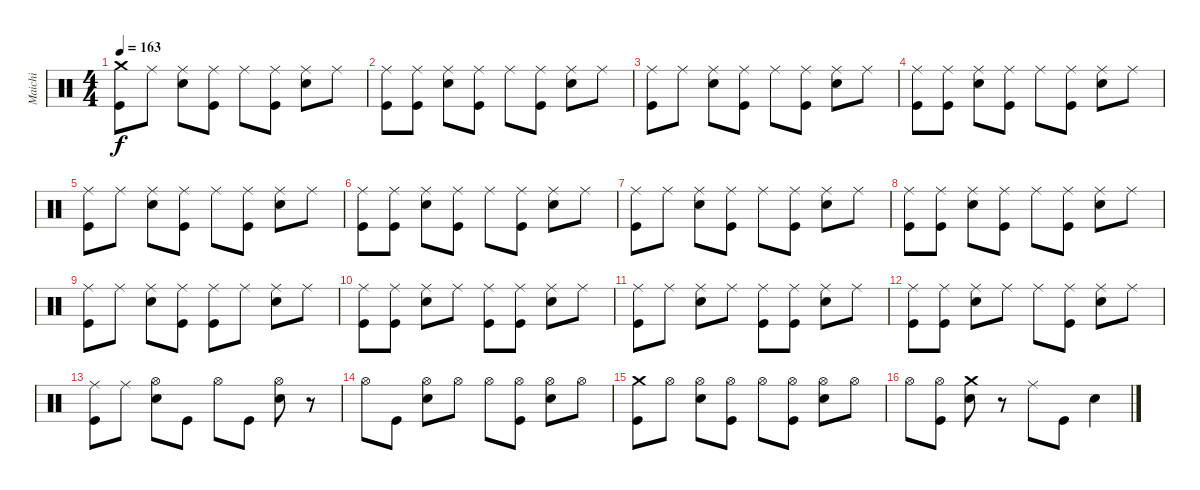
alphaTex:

\track ("Maichi" "Maichi") {instrument percussion}
\staff {score}
\articulation defaults
\ts (4 4)
\tempo 163
\clef neutral
\ks c
("Crash medium (hit)" "Kick (hit)").8{dy f} "Ride (middle)".8 ("Electric Snare (hit)" "Ride (middle)").8 ("Ride (middle)" "Kick (hit)").8 "Ride (middle)".8 ("Ride (middle)" "Kick (hit)").8 ("Electric Snare (hit)" "Ride (middle)").8 "Ride (middle)".8 |
("Kick (hit)" "Ride (middle)").8 ("Ride (middle)" "Kick (hit)").8 ("Ride (middle)" "Electric Snare (hit)").8 ("Kick (hit)" "Ride (middle)").8 "Ride (middle)".8 ("Kick (hit)" "Ride (middle)").8 ("Electric Snare (hit)" "Ride (middle)").8 "Ride (middle)".8 |
("Kick (hit)" "Ride (middle)").8 "Ride (middle)".8 ("Electric Snare (hit)" "Ride (middle)").8 ("Kick (hit)" "Ride (middle)").8 "Ride (middle)".8 ("Ride (middle)" "Kick (hit)").8 ("Ride (middle)" "Electric Snare (hit)").8 "Ride (middle)".8 |
("Ride (middle)" "Kick (hit)").8 ("Ride (middle)" "Kick (hit)").8 ("Ride (middle)" "Electric Snare (hit)").8 ("Kick (hit)" "Ride (middle)").8 "Ride (middle)".8 ("Ride (middle)" "Kick (hit)").8 ("Electric Snare (hit)" "Ride (middle)").8 "Ride (middle)".8 |
("Kick (hit)" "Ride (middle)").8 "Ride (middle)".8 ("Ride (middle)" "Electric Snare (hit)").8 ("Ride (middle)" "Kick (hit)").8 "Ride (middle)".8 ("Ride (middle)" "Kick (hit)").8 ("Ride (middle)" "Electric Snare (hit)").8 "Ride (middle)".8 |
("Ride (middle)" "Kick (hit)").8 ("Ride (middle)" "Kick (hit)").8 ("Electric Snare (hit)" "Ride (middle)").8 ("Kick (hit)" "Ride (middle)").8 "Ride (middle)".8 ("Kick (hit)" "Ride (middle)").8 ("Electric Snare (hit)" "Ride (middle)").8 "Ride (middle)".8 |
("Ride (middle)" "Kick (hit)").8 "Ride (middle)".8 ("Ride (middle)" "Electric Snare (hit)").8 ("Ride (middle)" "Kick (hit)").8 "Ride (middle)".8 ("Ride (middle)" "Kick (hit)").8 ("Ride (middle)" "Electric Snare (hit)").8 "Ride (middle)".8 |
("Kick (hit)" "Ride (middle)").8 ("Kick (hit)" "Ride (middle)").8 ("Ride (middle)" "Electric Snare (hit)").8 ("Ride (middle)" "Kick (hit)").8 "Ride (middle)".8 ("Kick (hit)" "Ride (middle)").8 ("Electric Snare (hit)" "Ride (middle)").8 "Ride (middle)".8 |
("Kick (hit)" "Ride (middle)").8 "Ride (middle)".8 ("Ride (middle)" "Electric Snare (hit)").8 ("Ride (middle)" "Kick (hit)").8 ("Kick (hit)" "Ride (middle)").8 "Ride (middle)".8 ("Electric Snare (hit)" "Ride (middle)").8 "Ride (middle)".8 |
("Ride (middle)" "Kick (hit)").8 ("Kick (hit)" "Ride (middle)").8 ("Electric Snare (hit)" "Ride (middle)").8 "Ride (middle)".8 ("Ride (middle)" "Kick (hit)").8 ("Kick (hit)" "Ride (middle)").8 ("Electric Snare (hit)" "Ride (middle)").8 "Ride (middle)".8 |
("Ride (middle)" "Kick (hit)").8 "Ride (middle)".8 ("Ride (middle)" "Electric Snare (hit)").8 "Ride (middle)".8 ("Kick (hit)" "Ride (middle)").8 ("Ride (middle)" "Kick (hit)").8 ("Ride (middle)" "Electric Snare (hit)").8 "Ride (middle)".8 |
("Kick (hit)" "Ride (middle)").8 ("Kick (hit)" "Ride (middle)").8 ("Ride (middle)" "Electric Snare (hit)").8 "Ride (middle)".8 "Ride (middle)".8 ("Ride (middle)" "Kick (hit)").8 ("Ride (middle)" "Electric Snare (hit)").8 "Ride (middle)".8 |
("Kick (hit)" "Ride (middle)").8 "Ride (middle)".8 ("Hi-Hat (open)" "Electric Snare (hit)").8 "Kick (hit)".8 "Hi-Hat (open)".8 "Kick (hit)".8 ("Hi-Hat (open)" "Electric Snare (hit)").8 r.8 |
"Hi-Hat (open)".8 "Kick (hit)".8 ("Electric Snare (hit)" "Hi-Hat (open)").8 "Hi-Hat (open)".8 "Hi-Hat (open)".8 ("Hi-Hat (open)" "Kick (hit)").8 ("Hi-Hat (open)" "Electric Snare (hit)").8 "Hi-Hat (open)".8 |
("Kick (hit)" "Crash medium (hit)").8 "Hi-Hat (open)".8 ("Hi-Hat (open)" "Electric Snare (hit)").8 ("Hi-Hat (open)" "Kick (hit)").8 "Hi-Hat (open)".8 ("Kick (hit)" "Hi-Hat (open)").8 ("Electric Snare (hit)" "Hi-Hat (open)").8 "Hi-Hat (open)".8 |
"Hi-Hat (open)".8 ("Hi-Hat (open)" "Kick (hit)").8 ("Electric Snare (hit)" "Crash medium (hit)").8 r.8 "Ride (middle)".8 "Kick (hit)".8 "Electric Snare (hit)".4
